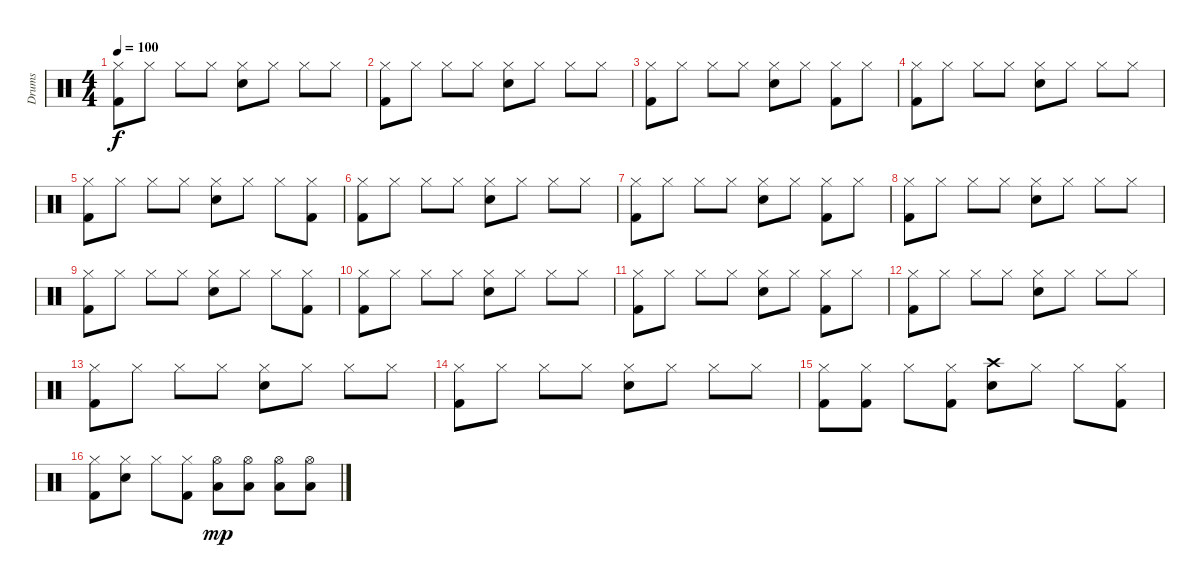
\track ("Drums" "Drums") {instrument percussion}
\staff {score}
\articulation defaults
\ts (4 4)
\tempo 100
\clef neutral
\ks c
("Kick (hit) 2" "Hi-Hat (closed)").8{dy f balance 8} "Hi-Hat (closed)".8 "Hi-Hat (closed)".8 "Hi-Hat (closed)".8 ("Hi-Hat (closed)" "Snare (hit) 2").8 "Hi-Hat (closed)".8 "Hi-Hat (closed)".8 "Hi-Hat (closed)".8 |
("Kick (hit) 2" "Hi-Hat (closed)").8 "Hi-Hat (closed)".8 "Hi-Hat (closed)".8 "Hi-Hat (closed)".8 ("Hi-Hat (closed)" "Snare (hit) 2").8 "Hi-Hat (closed)".8 "Hi-Hat (closed)".8 "Hi-Hat (closed)".8 |
("Kick (hit) 2" "Hi-Hat (closed)").8 "Hi-Hat (closed)".8 "Hi-Hat (closed)".8 "Hi-Hat (closed)".8 ("Hi-Hat (closed)" "Snare (hit) 2").8 "Hi-Hat (closed)".8 ("Kick (hit) 2" "Hi-Hat (closed)").8 "Hi-Hat (closed)".8 |
("Kick (hit) 2" "Hi-Hat (closed)").8 "Hi-Hat (closed)".8 "Hi-Hat (closed)".8 "Hi-Hat (closed)".8 ("Hi-Hat (closed)" "Snare (hit) 2").8 "Hi-Hat (closed)".8 "Hi-Hat (closed)".8 "Hi-Hat (closed)".8 |
("Kick (hit) 2" "Hi-Hat (closed)").8 "Hi-Hat (closed)".8 "Hi-Hat (closed)".8 "Hi-Hat (closed)".8 ("Hi-Hat (closed)" "Snare (hit) 2").8 "Hi-Hat (closed)".8 "Hi-Hat (closed)".8 ("Kick (hit) 2" "Hi-Hat (closed)").8 |
("Kick (hit) 2" "Hi-Hat (closed)").8 "Hi-Hat (closed)".8 "Hi-Hat (closed)".8 "Hi-Hat (closed)".8 ("Hi-Hat (closed)" "Snare (hit) 2").8 "Hi-Hat (closed)".8 "Hi-Hat (closed)".8 "Hi-Hat (closed)".8 |
("Kick (hit) 2" "Hi-Hat (closed)").8 "Hi-Hat (closed)".8 "Hi-Hat (closed)".8 "Hi-Hat (closed)".8 ("Hi-Hat (closed)" "Snare (hit) 2").8 "Hi-Hat (closed)".8 ("Kick (hit) 2" "Hi-Hat (closed)").8 "Hi-Hat (closed)".8 |
("Kick (hit) 2" "Hi-Hat (closed)").8 "Hi-Hat (closed)".8 "Hi-Hat (closed)".8 "Hi-Hat (closed)".8 ("Hi-Hat (closed)" "Snare (hit) 2").8 "Hi-Hat (closed)".8 "Hi-Hat (closed)".8 "Hi-Hat (closed)".8 |
("Kick (hit) 2" "Hi-Hat (closed)").8 "Hi-Hat (closed)".8 "Hi-Hat (closed)".8 "Hi-Hat (closed)".8 ("Hi-Hat (closed)" "Snare (hit) 2").8 "Hi-Hat (closed)".8 "Hi-Hat (closed)".8 ("Kick (hit) 2" "Hi-Hat (closed)").8 |
("Kick (hit) 2" "Hi-Hat (closed)").8 "Hi-Hat (closed)".8 "Hi-Hat (closed)".8 "Hi-Hat (closed)".8 ("Hi-Hat (closed)" "Snare (hit) 2").8 "Hi-Hat (closed)".8 "Hi-Hat (closed)".8 "Hi-Hat (closed)".8 |
("Kick (hit) 2" "Hi-Hat (closed)").8 "Hi-Hat (closed)".8 "Hi-Hat (closed)".8 "Hi-Hat (closed)".8 ("Hi-Hat (closed)" "Snare (hit) 2").8 "Hi-Hat (closed)".8 ("Kick (hit) 2" "Hi-Hat (closed)").8 "Hi-Hat (closed)".8 |
("Kick (hit) 2" "Hi-Hat (closed)").8 "Hi-Hat (closed)".8 "Hi-Hat (closed)".8 "Hi-Hat (closed)".8 ("Hi-Hat (closed)" "Snare (hit) 2").8 "Hi-Hat (closed)".8 "Hi-Hat (closed)".8 "Hi-Hat (closed)".8 |
("Kick (hit) 2" "Hi-Hat (closed)").8 "Hi-Hat (closed)".8 "Hi-Hat (closed)".8 "Hi-Hat (closed)".8 ("Hi-Hat (closed)" "Snare (hit) 2").8 "Hi-Hat (closed)".8 "Hi-Hat (closed)".8 "Hi-Hat (closed)".8 |
("Kick (hit) 2" "Hi-Hat (closed)").8 "Hi-Hat (closed)".8 "Hi-Hat (closed)".8 "Hi-Hat (closed)".8 ("Hi-Hat (closed)" "Snare (hit) 2").8 "Hi-Hat (closed)".8 "Hi-Hat (closed)".8 "Hi-Hat (closed)".8 |
("Kick (hit) 2" "Hi-Hat (closed)").8 ("Kick (hit) 2" "Hi-Hat (closed)").8 "Hi-Hat (closed)".8 ("Kick (hit) 2" "Hi-Hat (closed)").8 ("Crash high (hit)" "Snare (hit) 2").8 "Hi-Hat (closed)".8 "Hi-Hat (closed)".8 ("Kick (hit) 2" "Hi-Hat (closed)").8 |
("Kick (hit) 2" "Hi-Hat (closed)").8 ("Hi-Hat (closed)" "Snare (hit) 2").8 "Hi-Hat (closed)".8 ("Kick (hit) 2" "Hi-Hat (closed)").8 ("Low Tom (hit)" "Hi-Hat (open)").8{dy mp} ("Low Tom (hit)" "Hi-Hat (open)").8 ("Low Tom (hit)" "Hi-Hat (open)").8 ("Low Tom (hit)" "Hi-Hat (open)").8
